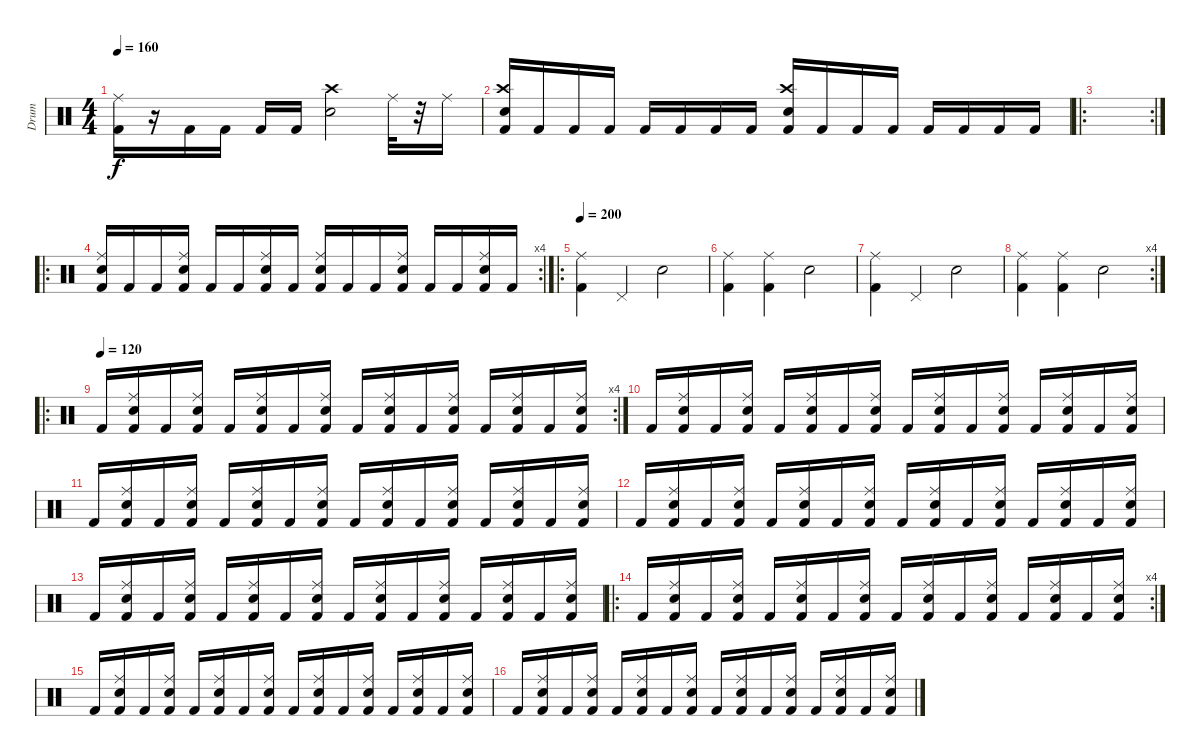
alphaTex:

\track ("Drum" "Drum") {instrument percussion}
\staff {score}
\articulation defaults
\ts (4 4)
\tempo 160
\clef neutral
\ks c
("Kick (hit) 2" "Ride (middle)").16{dy f} r.16 "Kick (hit) 2".16 "Kick (hit) 2".16 "Kick (hit) 2".16 "Kick (hit) 2".16 ("Crash high (hit)" "Electric Snare (hit)").2 "Ride (middle)".32 r.32 "Ride (middle)".16 |
("Kick (hit) 2" "Crash high (hit)" "Electric Snare (hit)").16 "Kick (hit) 2".16 "Kick (hit) 2".16 "Kick (hit) 2".16 "Kick (hit) 2".16 "Kick (hit) 2".16 "Kick (hit) 2".16 "Kick (hit) 2".16 ("Kick (hit) 2" "Crash high (hit)" "Electric Snare (hit)").16 "Kick (hit) 2".16 "Kick (hit) 2".16 "Kick (hit) 2".16 "Kick (hit) 2".16 "Kick (hit) 2".16 "Kick (hit) 2".16 "Kick (hit) 2".16 |
\ro
\rc 2
|
\ro
\rc 4
("Kick (hit) 2" "Ride (middle)" "Electric Snare (hit)").16 "Kick (hit) 2".16 "Kick (hit) 2".16 ("Kick (hit) 2" "Ride (middle)" "Electric Snare (hit)").16 "Kick (hit) 2".16 "Kick (hit) 2".16 ("Kick (hit) 2" "Ride (middle)" "Electric Snare (hit)").16 "Kick (hit) 2".16 ("Kick (hit) 2" "Ride (middle)" "Electric Snare (hit)").16 "Kick (hit) 2".16 "Kick (hit) 2".16 ("Kick (hit) 2" "Ride (middle)" "Electric Snare (hit)").16 "Kick (hit) 2".16 "Kick (hit) 2".16 ("Kick (hit) 2" "Ride (middle)" "Electric Snare (hit)").16 "Kick (hit) 2".16 |
\ro
\tempo 200
("Kick (hit) 2" "Ride (middle)").4 "Pedal Hi-Hat (hit)".4 "Electric Snare (hit)".2 |
("Kick (hit) 2" "Ride (middle)").4 ("Kick (hit) 2" "Ride (middle)").4 "Electric Snare (hit)".2 |
("Kick (hit) 2" "Ride (middle)").4 "Pedal Hi-Hat (hit)".4 "Electric Snare (hit)".2 |
\rc 4
("Kick (hit) 2" "Ride (middle)").4 ("Kick (hit) 2" "Ride (middle)").4 "Electric Snare (hit)".2 |
\ro
\rc 4
\tempo (120)
"Kick (hit) 2".16 ("Kick (hit) 2" "Ride (middle)" "Electric Snare (hit)").16 "Kick (hit) 2".16 ("Kick (hit) 2" "Ride (middle)" "Electric Snare (hit)").16 "Kick (hit) 2".16 ("Kick (hit) 2" "Ride (middle)" "Electric Snare (hit)").16 "Kick (hit) 2".16 ("Kick (hit) 2" "Ride (middle)" "Electric Snare (hit)").16 "Kick (hit) 2".16 ("Kick (hit) 2" "Ride (middle)" "Electric Snare (hit)").16 "Kick (hit) 2".16 ("Kick (hit) 2" "Ride (middle)" "Electric Snare (hit)").16 "Kick (hit) 2".16 ("Kick (hit) 2" "Ride (middle)" "Electric Snare (hit)").16 "Kick (hit) 2".16 ("Kick (hit) 2" "Ride (middle)" "Electric Snare (hit)").16 |
"Kick (hit) 2".16 ("Kick (hit) 2" "Ride (middle)" "Electric Snare (hit)").16 "Kick (hit) 2".16 ("Kick (hit) 2" "Ride (middle)" "Electric Snare (hit)").16 "Kick (hit) 2".16 ("Kick (hit) 2" "Ride (middle)" "Electric Snare (hit)").16 "Kick (hit) 2".16 ("Kick (hit) 2" "Ride (middle)" "Electric Snare (hit)").16 "Kick (hit) 2".16 ("Kick (hit) 2" "Ride (middle)" "Electric Snare (hit)").16 "Kick (hit) 2".16 ("Kick (hit) 2" "Ride (middle)" "Electric Snare (hit)").16 "Kick (hit) 2".16 ("Kick (hit) 2" "Ride (middle)" "Electric Snare (hit)").16 "Kick (hit) 2".16 ("Kick (hit) 2" "Ride (middle)" "Electric Snare (hit)").16 |
"Kick (hit) 2".16 ("Kick (hit) 2" "Ride (middle)" "Electric Snare (hit)").16 "Kick (hit) 2".16 ("Kick (hit) 2" "Ride (middle)" "Electric Snare (hit)").16 "Kick (hit) 2".16 ("Kick (hit) 2" "Ride (middle)" "Electric Snare (hit)").16 "Kick (hit) 2".16 ("Kick (hit) 2" "Ride (middle)" "Electric Snare (hit)").16 "Kick (hit) 2".16 ("Kick (hit) 2" "Ride (middle)" "Electric Snare (hit)").16 "Kick (hit) 2".16 ("Kick (hit) 2" "Ride (middle)" "Electric Snare (hit)").16 "Kick (hit) 2".16 ("Kick (hit) 2" "Ride (middle)" "Electric Snare (hit)").16 "Kick (hit) 2".16 ("Kick (hit) 2" "Ride (middle)" "Electric Snare (hit)").16 |
"Kick (hit) 2".16 ("Kick (hit) 2" "Ride (middle)" "Electric Snare (hit)").16 "Kick (hit) 2".16 ("Kick (hit) 2" "Ride (middle)" "Electric Snare (hit)").16 "Kick (hit) 2".16 ("Kick (hit) 2" "Ride (middle)" "Electric Snare (hit)").16 "Kick (hit) 2".16 ("Kick (hit) 2" "Ride (middle)" "Electric Snare (hit)").16 "Kick (hit) 2".16 ("Kick (hit) 2" "Ride (middle)" "Electric Snare (hit)").16 "Kick (hit) 2".16 ("Kick (hit) 2" "Ride (middle)" "Electric Snare (hit)").16 "Kick (hit) 2".16 ("Kick (hit) 2" "Ride (middle)" "Electric Snare (hit)").16 "Kick (hit) 2".16 ("Kick (hit) 2" "Ride (middle)" "Electric Snare (hit)").16 |
"Kick (hit) 2".16 ("Kick (hit) 2" "Ride (middle)" "Electric Snare (hit)").16 "Kick (hit) 2".16 ("Kick (hit) 2" "Ride (middle)" "Electric Snare (hit)").16 "Kick (hit) 2".16 ("Kick (hit) 2" "Ride (middle)" "Electric Snare (hit)").16 "Kick (hit) 2".16 ("Kick (hit) 2" "Ride (middle)" "Electric Snare (hit)").16 "Kick (hit) 2".16 ("Kick (hit) 2" "Ride (middle)" "Electric Snare (hit)").16 "Kick (hit) 2".16 ("Kick (hit) 2" "Ride (middle)" "Electric Snare (hit)").16 "Kick (hit) 2".16 ("Kick (hit) 2" "Ride (middle)" "Electric Snare (hit)").16 "Kick (hit) 2".16 ("Kick (hit) 2" "Ride (middle)" "Electric Snare (hit)").16 |
\ro
\rc 4 "Kick (hit) 2".16
("Kick (hit) 2" "Ride (middle)" "Electric Snare (hit)").16 "Kick (hit) 2".16 ("Kick (hit) 2" "Ride (middle)" "Electric Snare (hit)").16 "Kick (hit) 2".16 ("Kick (hit) 2" "Ride (middle)" "Electric Snare (hit)").16 "Kick (hit) 2".16 ("Kick (hit) 2" "Ride (middle)" "Electric Snare (hit)").16 "Kick (hit) 2".16 ("Kick (hit) 2" "Ride (middle)" "Electric Snare (hit)").16 "Kick (hit) 2".16 ("Kick (hit) 2" "Ride (middle)" "Electric Snare (hit)").16 "Kick (hit) 2".16 ("Kick (hit) 2" "Ride (middle)" "Electric Snare (hit)").16 "Kick (hit) 2".16 ("Kick (hit) 2" "Ride (middle)" "Electric Snare (hit)").16 |
"Kick (hit) 2".16 ("Kick (hit) 2" "Ride (middle)" "Electric Snare (hit)").16 "Kick (hit) 2".16 ("Kick (hit) 2" "Ride (middle)" "Electric Snare (hit)").16 "Kick (hit) 2".16 ("Kick (hit) 2" "Ride (middle)" "Electric Snare (hit)").16 "Kick (hit) 2".16 ("Kick (hit) 2" "Ride (middle)" "Electric Snare (hit)").16 "Kick (hit) 2".16 ("Kick (hit) 2" "Ride (middle)" "Electric Snare (hit)").16 "Kick (hit) 2".16 ("Kick (hit) 2" "Ride (middle)" "Electric Snare (hit)").16 "Kick (hit) 2".16 ("Kick (hit) 2" "Ride (middle)" "Electric Snare (hit)").16 "Kick (hit) 2".16 ("Kick (hit) 2" "Ride (middle)" "Electric Snare (hit)").16 |
"Kick (hit) 2".16 ("Kick (hit) 2" "Ride (middle)" "Electric Snare (hit)").16 "Kick (hit) 2".16 ("Kick (hit) 2" "Ride (middle)" "Electric Snare (hit)").16 "Kick (hit) 2".16 ("Kick (hit) 2" "Ride (middle)" "Electric Snare (hit)").16 "Kick (hit) 2".16 ("Kick (hit) 2" "Ride (middle)" "Electric Snare (hit)").16 "Kick (hit) 2".16 ("Kick (hit) 2" "Ride (middle)" "Electric Snare (hit)").16 "Kick (hit) 2".16 ("Kick (hit) 2" "Ride (middle)" "Electric Snare (hit)").16 "Kick (hit) 2".16 ("Kick (hit) 2" "Ride (middle)" "Electric Snare (hit)").16 "Kick (hit) 2".16 ("Kick (hit) 2" "Ride (middle)" "Electric Snare (hit)").16
